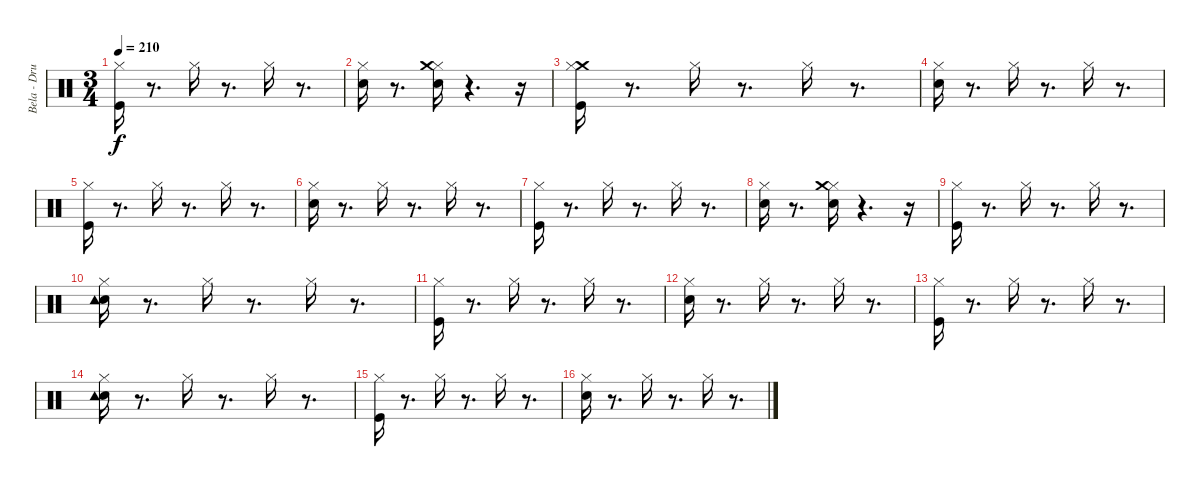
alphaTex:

\track ("Bela - Drums" "Bela - Dru") {instrument percussion}
\staff {score}
\articulation defaults
\ts (3 4)
\tempo 210
\clef neutral
\ks c
("Kick (hit)" "Hi-Hat (closed)").16{dy f} r.8{d} "Hi-Hat (closed)".16 r.8{d} "Hi-Hat (closed)".16 r.8{d} |
("Hi-Hat (closed)" "Electric Snare (hit)").16 r.8{d} ("Hi-Hat (closed)" "Electric Snare (hit)" "Crash medium (hit)").16 r.4{d} r.16 |
("Kick (hit)" "Crash medium (hit)" "Hi-Hat (closed)").16 r.8{d} "Hi-Hat (closed)".16 r.8{d} "Hi-Hat (closed)".16 r.8{d} |
("Hi-Hat (closed)" "Electric Snare (hit)").16 r.8{d} "Hi-Hat (closed)".16 r.8{d} "Hi-Hat (closed)".16 r.8{d} |
("Kick (hit)" "Hi-Hat (closed)").16 r.8{d} "Hi-Hat (closed)".16 r.8{d} "Hi-Hat (closed)".16 r.8{d} |
("Hi-Hat (closed)" "Electric Snare (hit)").16 r.8{d} "Hi-Hat (closed)".16 r.8{d} "Hi-Hat (closed)".16 r.8{d} |
("Kick (hit)" "Hi-Hat (closed)").16 r.8{d} "Hi-Hat (closed)".16 r.8{d} "Hi-Hat (closed)".16 r.8{d} |
("Hi-Hat (closed)" "Electric Snare (hit)").16 r.8{d} ("Hi-Hat (closed)" "Electric Snare (hit)" "Crash medium (hit)").16 r.4{d} r.16 |
("Kick (hit)" "Hi-Hat (closed)").16 r.8{d} "Hi-Hat (closed)".16 r.8{d} "Hi-Hat (closed)".16 r.8{d} |
("Hi-Hat (closed)" "Electric Snare (hit)" "Tambourine (hit)").16 r.8{d} "Hi-Hat (closed)".16 r.8{d} "Hi-Hat (closed)".16 r.8{d} |
("Kick (hit)" "Hi-Hat (closed)").16 r.8{d} "Hi-Hat (closed)".16 r.8{d} "Hi-Hat (closed)".16 r.8{d} |
("Hi-Hat (closed)" "Electric Snare (hit)").16 r.8{d} "Hi-Hat (closed)".16 r.8{d} "Hi-Hat (closed)".16 r.8{d} |
("Kick (hit)" "Hi-Hat (closed)").16 r.8{d} "Hi-Hat (closed)".16 r.8{d} "Hi-Hat (closed)".16 r.8{d} |
("Hi-Hat (closed)" "Electric Snare (hit)" "Tambourine (hit)").16 r.8{d} "Hi-Hat (closed)".16 r.8{d} "Hi-Hat (closed)".16 r.8{d} |
("Kick (hit)" "Hi-Hat (closed)").16 r.8{d} "Hi-Hat (closed)".16 r.8{d} "Hi-Hat (closed)".16 r.8{d} |
("Hi-Hat (closed)" "Electric Snare (hit)").16 r.8{d} "Hi-Hat (closed)".16 r.8{d} "Hi-Hat (closed)".16 r.8{d}
